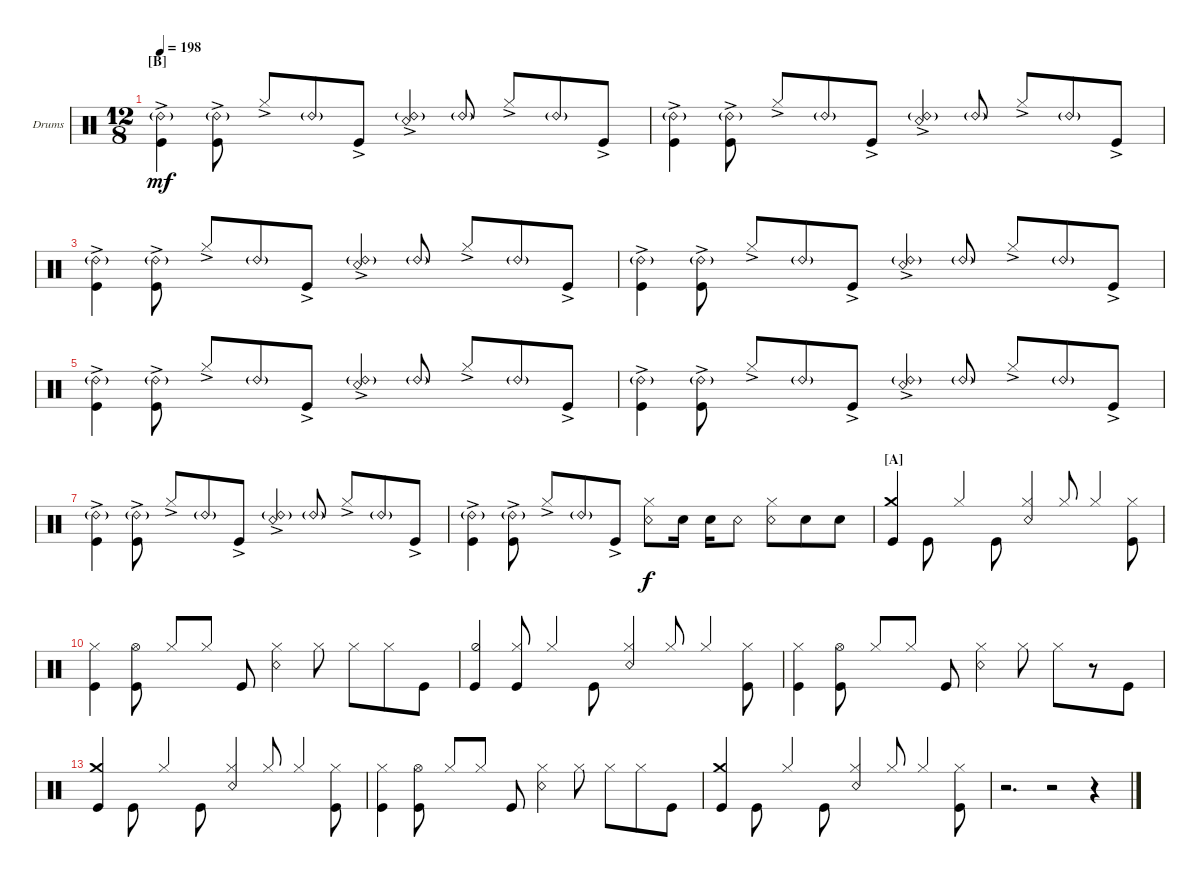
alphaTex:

\bracketExtendMode nobrackets
\firstSystemTrackNameOrientation horizontal
\otherSystemsTrackNameOrientation horizontal
\defaultBarNumberDisplay FirstOfSystem
\track ("Drumkit" "Drums") {instrument percussion}
\staff {score}
\articulation defaults
\ts (12 8)
\section ("B" "")
\tempo 198
\clef neutral
\ks c
("Kick (hit)"{ac} "Ride (bell) 2"{g}).4{dy mf beam invert} ("Kick (hit)"{ac} "Ride (bell) 2"{g}).8{beam invert} "Hi-Hat (closed)"{ac}.8 "Ride (bell) 2"{g}.8 "Kick (hit)"{ac}.8{beam invert} ("Snare (rim shot)"{ac} "Ride (bell) 2"{g}).4 "Ride (bell) 2"{g}.8{beam invert} "Hi-Hat (closed)"{ac}.8{beam invert} "Ride (bell) 2"{g}.8 "Kick (hit)"{ac}.8 |
("Kick (hit)"{ac} "Ride (bell) 2"{g}).4{beam invert} ("Kick (hit)"{ac} "Ride (bell) 2"{g}).8{beam invert} "Hi-Hat (closed)"{ac}.8 "Ride (bell) 2"{g}.8 "Kick (hit)"{ac}.8{beam invert} ("Snare (rim shot)"{ac} "Ride (bell) 2"{g}).4 "Ride (bell) 2"{g}.8{beam invert} "Hi-Hat (closed)"{ac}.8{beam invert} "Ride (bell) 2"{g}.8 "Kick (hit)"{ac}.8 |
("Kick (hit)"{ac} "Ride (bell) 2"{g}).4{beam invert} ("Kick (hit)"{ac} "Ride (bell) 2"{g}).8{beam invert} "Hi-Hat (closed)"{ac}.8 "Ride (bell) 2"{g}.8 "Kick (hit)"{ac}.8{beam invert} ("Snare (rim shot)"{ac} "Ride (bell) 2"{g}).4 "Ride (bell) 2"{g}.8{beam invert} "Hi-Hat (closed)"{ac}.8{beam invert} "Ride (bell) 2"{g}.8 "Kick (hit)"{ac}.8 |
("Kick (hit)"{ac} "Ride (bell) 2"{g}).4{beam invert} ("Kick (hit)"{ac} "Ride (bell) 2"{g}).8{beam invert} "Hi-Hat (closed)"{ac}.8 "Ride (bell) 2"{g}.8 "Kick (hit)"{ac}.8{beam invert} ("Snare (rim shot)"{ac} "Ride (bell) 2"{g}).4 "Ride (bell) 2"{g}.8{beam invert} "Hi-Hat (closed)"{ac}.8{beam invert} "Ride (bell) 2"{g}.8 "Kick (hit)"{ac}.8 |
("Kick (hit)"{ac} "Ride (bell) 2"{g}).4{beam invert} ("Kick (hit)"{ac} "Ride (bell) 2"{g}).8{beam invert} "Hi-Hat (closed)"{ac}.8 "Ride (bell) 2"{g}.8 "Kick (hit)"{ac}.8{beam invert} ("Snare (rim shot)"{ac} "Ride (bell) 2"{g}).4 "Ride (bell) 2"{g}.8{beam invert} "Hi-Hat (closed)"{ac}.8{beam invert} "Ride (bell) 2"{g}.8 "Kick (hit)"{ac}.8 |
("Kick (hit)"{ac} "Ride (bell) 2"{g}).4{beam invert} ("Kick (hit)"{ac} "Ride (bell) 2"{g}).8{beam invert} "Hi-Hat (closed)"{ac}.8 "Ride (bell) 2"{g}.8 "Kick (hit)"{ac}.8{beam invert} ("Snare (rim shot)"{ac} "Ride (bell) 2"{g}).4 "Ride (bell) 2"{g}.8{beam invert} "Hi-Hat (closed)"{ac}.8{beam invert} "Ride (bell) 2"{g}.8 "Kick (hit)"{ac}.8 |
("Kick (hit)"{ac} "Ride (bell) 2"{g}).4{beam invert} ("Kick (hit)"{ac} "Ride (bell) 2"{g}).8{beam invert} "Hi-Hat (closed)"{ac}.8 "Ride (bell) 2"{g}.8 "Kick (hit)"{ac}.8{beam invert} ("Snare (rim shot)"{ac} "Ride (bell) 2"{g}).4 "Ride (bell) 2"{g}.8{beam invert} "Hi-Hat (closed)"{ac}.8{beam invert} "Ride (bell) 2"{g}.8 "Kick (hit)"{ac}.8 |
("Kick (hit)"{ac} "Ride (bell) 2"{g}).4{beam invert} ("Kick (hit)"{ac} "Ride (bell) 2"{g}).8{beam invert} "Hi-Hat (closed)"{ac}.8 "Ride (bell) 2"{g}.8 "Kick (hit)"{ac}.8{beam invert} ("Snare (rim shot)" "Hi-Hat (closed)").8{dy f} "Snare (hit) 2".16{beam split} "Snare (hit) 2".16 "Snare (rim shot)".8 ("Snare (rim shot)" "Hi-Hat (closed)").8 "Snare (hit) 2".8 "Snare (hit) 2".8 |
\section ("A" "")
("Kick (hit)" "Crash medium (hit)").4{beam invert} "Kick (hit)".8{beam invert} "Hi-Hat (closed)".4 "Kick (hit)".8{beam invert} ("Snare (rim shot)" "Hi-Hat (closed)").4 "Hi-Hat (closed)".8{beam invert} "Hi-Hat (closed)".4{beam invert} ("Kick (hit)" "Hi-Hat (closed)").8 |
("Kick (hit)" "Hi-Hat (closed)").4 ("Kick (hit)" "Hi-Hat (open)").8{beam split} "Hi-Hat (closed)".8 "Hi-Hat (closed)".8{beam invert beam split} "Kick (hit)".8 ("Snare (rim shot)" "Hi-Hat (closed)").4 "Hi-Hat (closed)".8{beam split} "Hi-Hat (closed)".8 "Hi-Hat (closed)".8 "Kick (hit)".8 |
("Kick (hit)" "Hi-Hat (half)").4{beam invert} ("Kick (hit)" "Hi-Hat (closed)").8{beam invert} "Hi-Hat (closed)".4 "Kick (hit)".8{beam invert} ("Snare (rim shot)" "Hi-Hat (closed)").4 "Hi-Hat (closed)".8{beam invert} "Hi-Hat (closed)".4{beam invert} ("Kick (hit)" "Hi-Hat (closed)").8 |
("Kick (hit)" "Hi-Hat (closed)").4 ("Kick (hit)" "Hi-Hat (open)").8{beam split} "Hi-Hat (closed)".8 "Hi-Hat (closed)".8{beam invert beam split} "Kick (hit)".8 ("Snare (rim shot)" "Hi-Hat (closed)").4 "Hi-Hat (closed)".8{beam split} "Hi-Hat (closed)".8 r.8 "Kick (hit)".8 |
("Kick (hit)" "Crash medium (hit)").4{beam invert} "Kick (hit)".8{beam invert} "Hi-Hat (closed)".4 "Kick (hit)".8{beam invert} ("Snare (rim shot)" "Hi-Hat (closed)").4 "Hi-Hat (closed)".8{beam invert} "Hi-Hat (closed)".4{beam invert} ("Kick (hit)" "Hi-Hat (closed)").8 |
("Kick (hit)" "Hi-Hat (closed)").4 ("Kick (hit)" "Hi-Hat (open)").8{beam split} "Hi-Hat (closed)".8 "Hi-Hat (closed)".8{beam invert beam split} "Kick (hit)".8 ("Snare (rim shot)" "Hi-Hat (closed)").4 "Hi-Hat (closed)".8{beam split} "Hi-Hat (closed)".8 "Hi-Hat (closed)".8 "Kick (hit)".8 |
("Kick (hit)" "Crash medium (hit)").4{beam invert} "Kick (hit)".8{beam invert} "Hi-Hat (closed)".4 "Kick (hit)".8{beam invert} ("Snare (rim shot)" "Hi-Hat (closed)").4 "Hi-Hat (closed)".8{beam invert} "Hi-Hat (closed)".4{beam invert} ("Kick (hit)" "Hi-Hat (closed)").8 |
r.2{d} r.2 r.4
